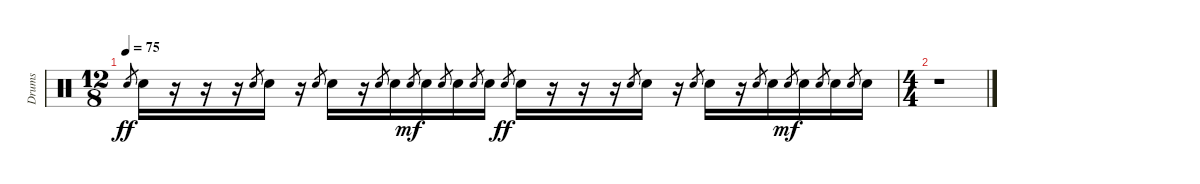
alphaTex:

\track ("Drums" "Drums") {instrument percussion}
\staff {score}
\articulation defaults
\ts (12 8)
\tempo 75
\clef neutral
\ks c "Electric Snare (hit)".8{gr dy ff} "Electric Snare (hit)".16
r.16 r.16 r.16 "Electric Snare (hit)".8{gr} "Electric Snare (hit)".16 r.16 "Electric Snare (hit)".8{gr} "Electric Snare (hit)".16 r.16 "Electric Snare (hit)".8{gr} "Electric Snare (hit)".16 "Electric Snare (hit)".8{gr dy mf} "Electric Snare (hit)".16 "Electric Snare (hit)".8{gr} "Electric Snare (hit)".16 "Electric Snare (hit)".8{gr} "Electric Snare (hit)".16 "Electric Snare (hit)".8{gr dy ff} "Electric Snare (hit)".16 r.16 r.16 r.16 "Electric Snare (hit)".8{gr} "Electric Snare (hit)".16 r.16 "Electric Snare (hit)".8{gr} "Electric Snare (hit)".16 r.16 "Electric Snare (hit)".8{gr} "Electric Snare (hit)".16 "Electric Snare (hit)".8{gr dy mf} "Electric Snare (hit)".16 "Electric Snare (hit)".8{gr} "Electric Snare (hit)".16 "Electric Snare (hit)".8{gr} "Electric Snare (hit)".16 |
\ts (4 4)
r.1
